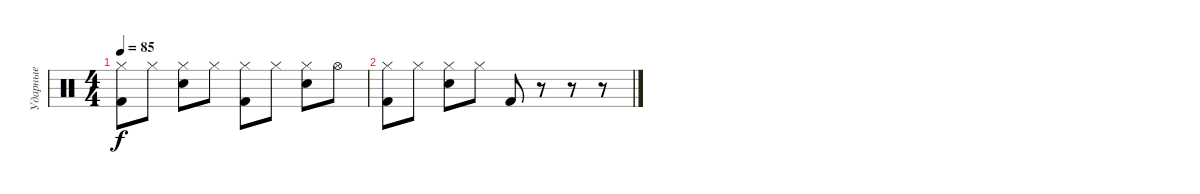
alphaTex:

\track ("Ударные" "Ударные") {instrument percussion}
\staff {score}
\articulation defaults
\ts (4 4)
\tempo 85
\clef neutral
\ks c
("Hi-Hat (closed)" "Kick (hit) 2").8{dy f} "Hi-Hat (closed)".8 ("Hi-Hat (closed)" "Electric Snare (hit)").8 "Hi-Hat (closed)".8 ("Hi-Hat (closed)" "Kick (hit) 2").8 "Hi-Hat (closed)".8 ("Hi-Hat (closed)" "Electric Snare (hit)").8 "Hi-Hat (open)".8 |
("Hi-Hat (closed)" "Kick (hit) 2").8 "Hi-Hat (closed)".8 ("Hi-Hat (closed)" "Electric Snare (hit)").8 "Hi-Hat (closed)".8 "Kick (hit) 2".8 r.8 r.8 r.8
